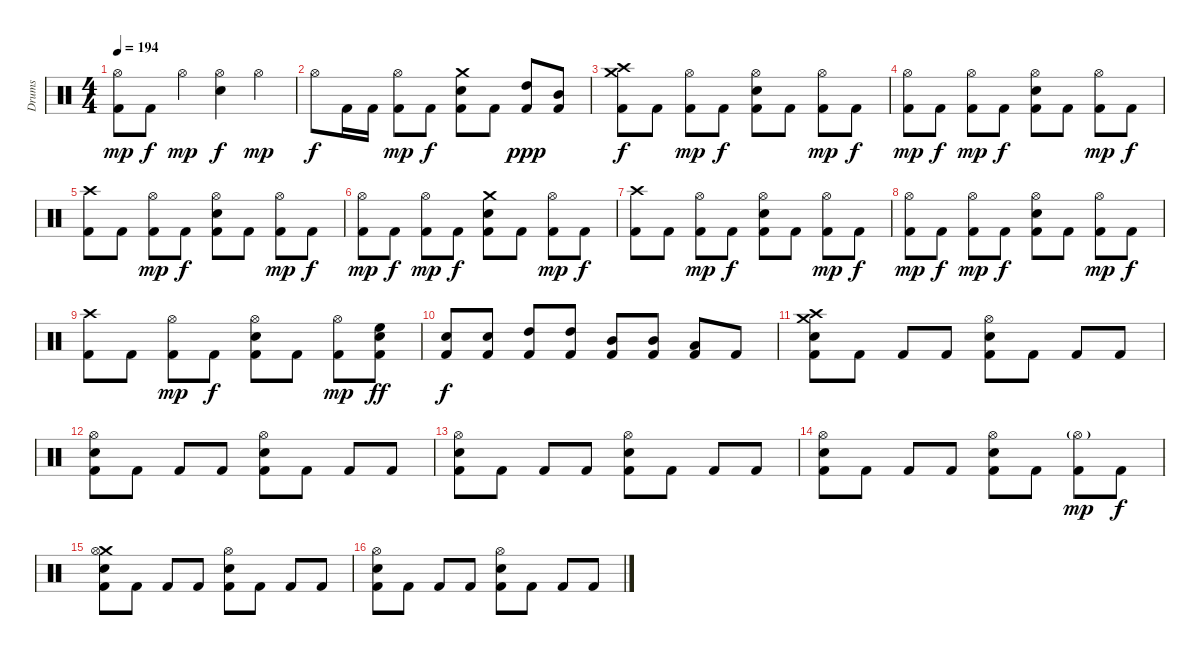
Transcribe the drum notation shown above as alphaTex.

\track ("Drums" "Drums") {instrument percussion}
\staff {score}
\articulation defaults
\ts (4 4)
\tempo 194
\clef neutral
\ks c
("Hi-Hat (open)" "Kick (hit) 2").8{dy mp} "Kick (hit) 2".8{dy f} "Hi-Hat (open)".4{dy mp} ("Hi-Hat (open)" "Electric Snare (hit)").4{dy f} "Hi-Hat (open)".4{dy mp} |
"Hi-Hat (open)".8{dy f} "Kick (hit) 2".16 "Kick (hit) 2".16 ("Hi-Hat (open)" "Kick (hit) 2").8{dy mp} "Kick (hit) 2".8{dy f} ("Crash medium (hit)" "Electric Snare (hit)" "Kick (hit) 2").8 "Kick (hit) 2".8 ("High Tom (hit)" "Kick (hit) 2").8{dy ppp} ("Mid Tom (hit)" "Kick (hit) 2").8 |
("Crash high (hit)" "Crash medium (hit)" "Kick (hit) 2").8{dy f} "Kick (hit) 2".8 ("Hi-Hat (open)" "Kick (hit) 2").8{dy mp} "Kick (hit) 2".8{dy f} ("Hi-Hat (open)" "Electric Snare (hit)" "Kick (hit) 2").8 "Kick (hit) 2".8 ("Hi-Hat (open)" "Kick (hit) 2").8{dy mp} "Kick (hit) 2".8{dy f} |
("Hi-Hat (open)" "Kick (hit) 2").8{dy mp} "Kick (hit) 2".8{dy f} ("Hi-Hat (open)" "Kick (hit) 2").8{dy mp} "Kick (hit) 2".8{dy f} ("Hi-Hat (open)" "Electric Snare (hit)" "Kick (hit) 2").8 "Kick (hit) 2".8 ("Hi-Hat (open)" "Kick (hit) 2").8{dy mp} "Kick (hit) 2".8{dy f} |
("Crash high (hit)" "Kick (hit) 2").8 "Kick (hit) 2".8 ("Hi-Hat (open)" "Kick (hit) 2").8{dy mp} "Kick (hit) 2".8{dy f} ("Hi-Hat (open)" "Electric Snare (hit)" "Kick (hit) 2").8 "Kick (hit) 2".8 ("Hi-Hat (open)" "Kick (hit) 2").8{dy mp} "Kick (hit) 2".8{dy f} |
("Hi-Hat (open)" "Kick (hit) 2").8{dy mp} "Kick (hit) 2".8{dy f} ("Hi-Hat (open)" "Kick (hit) 2").8{dy mp} "Kick (hit) 2".8{dy f} ("Crash medium (hit)" "Electric Snare (hit)" "Kick (hit) 2").8 "Kick (hit) 2".8 ("Hi-Hat (open)" "Kick (hit) 2").8{dy mp} "Kick (hit) 2".8{dy f} |
("Crash high (hit)" "Kick (hit) 2").8 "Kick (hit) 2".8 ("Hi-Hat (open)" "Kick (hit) 2").8{dy mp} "Kick (hit) 2".8{dy f} ("Hi-Hat (open)" "Electric Snare (hit)" "Kick (hit) 2").8 "Kick (hit) 2".8 ("Hi-Hat (open)" "Kick (hit) 2").8{dy mp} "Kick (hit) 2".8{dy f} |
("Hi-Hat (open)" "Kick (hit) 2").8{dy mp} "Kick (hit) 2".8{dy f} ("Hi-Hat (open)" "Kick (hit) 2").8{dy mp} "Kick (hit) 2".8{dy f} ("Hi-Hat (open)" "Electric Snare (hit)" "Kick (hit) 2").8 "Kick (hit) 2".8 ("Hi-Hat (open)" "Kick (hit) 2").8{dy mp} "Kick (hit) 2".8{dy f} |
("Crash high (hit)" "Kick (hit) 2").8 "Kick (hit) 2".8 ("Hi-Hat (open)" "Kick (hit) 2").8{dy mp} "Kick (hit) 2".8{dy f} ("Hi-Hat (open)" "Electric Snare (hit)" "Kick (hit) 2").8 "Kick (hit) 2".8 ("Hi-Hat (open)" "Kick (hit) 2").8{dy mp} ("High Floor Tom (hit)" "Electric Snare (hit)" "Kick (hit) 2").8{dy ff} |
("Electric Snare (hit)" "Kick (hit) 2").8{dy f} ("Electric Snare (hit)" "Kick (hit) 2").8 ("High Tom (hit)" "Kick (hit) 2").8 ("High Tom (hit)" "Kick (hit) 2").8 ("Mid Tom (hit)" "Kick (hit) 2").8 ("Mid Tom (hit)" "Kick (hit) 2").8 ("Low Tom (hit)" "Kick (hit) 2").8 "Kick (hit) 2".8 |
("Crash high (hit)" "Crash medium (hit)" "Electric Snare (hit)" "Kick (hit) 2").8 "Kick (hit) 2".8 "Kick (hit) 2".8 "Kick (hit) 2".8 ("Hi-Hat (open)" "Electric Snare (hit)" "Kick (hit) 2").8 "Kick (hit) 2".8 "Kick (hit) 2".8 "Kick (hit) 2".8 |
("Hi-Hat (open)" "Electric Snare (hit)" "Kick (hit) 2").8 "Kick (hit) 2".8 "Kick (hit) 2".8 "Kick (hit) 2".8 ("Hi-Hat (open)" "Electric Snare (hit)" "Kick (hit) 2").8 "Kick (hit) 2".8 "Kick (hit) 2".8 "Kick (hit) 2".8 |
("Hi-Hat (open)" "Electric Snare (hit)" "Kick (hit) 2").8 "Kick (hit) 2".8 "Kick (hit) 2".8 "Kick (hit) 2".8 ("Hi-Hat (open)" "Electric Snare (hit)" "Kick (hit) 2").8 "Kick (hit) 2".8 "Kick (hit) 2".8 "Kick (hit) 2".8 |
("Hi-Hat (open)" "Electric Snare (hit)" "Kick (hit) 2").8 "Kick (hit) 2".8 "Kick (hit) 2".8 "Kick (hit) 2".8 ("Hi-Hat (open)" "Electric Snare (hit)" "Kick (hit) 2").8 "Kick (hit) 2".8 ("Hi-Hat (open)"{g} "Kick (hit) 2").8{dy mp} "Kick (hit) 2".8{dy f} |
("Crash medium (hit)" "Hi-Hat (open)" "Electric Snare (hit)" "Kick (hit) 2").8 "Kick (hit) 2".8 "Kick (hit) 2".8 "Kick (hit) 2".8 ("Hi-Hat (open)" "Electric Snare (hit)" "Kick (hit) 2").8 "Kick (hit) 2".8 "Kick (hit) 2".8 "Kick (hit) 2".8 |
("Hi-Hat (open)" "Electric Snare (hit)" "Kick (hit) 2").8 "Kick (hit) 2".8 "Kick (hit) 2".8 "Kick (hit) 2".8 ("Hi-Hat (open)" "Electric Snare (hit)" "Kick (hit) 2").8 "Kick (hit) 2".8 "Kick (hit) 2".8 "Kick (hit) 2".8
